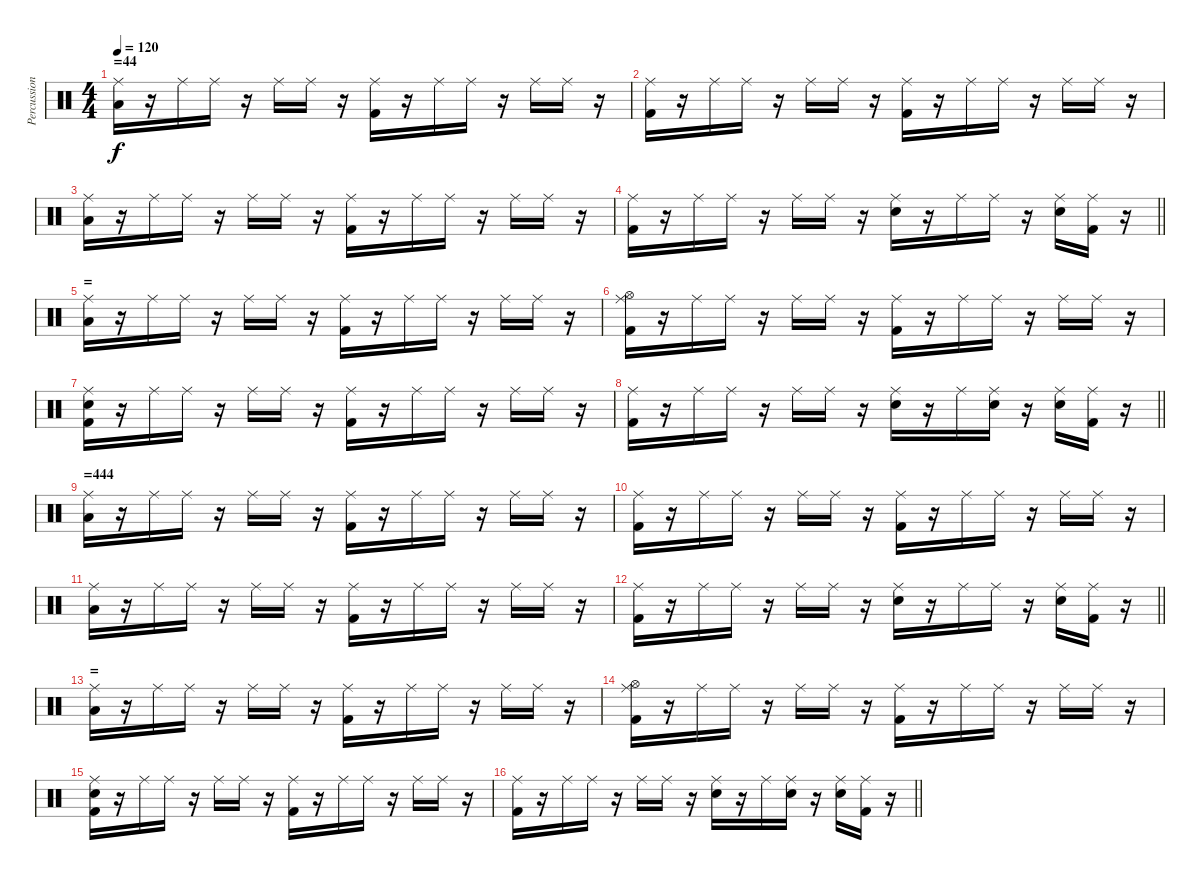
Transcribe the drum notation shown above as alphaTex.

\track ("Percussion" "Percussion") {instrument percussion}
\staff {score}
\articulation defaults
\ts (4 4)
\section ("" "=44")
\tempo 120
\clef neutral
\ks c
("Low Floor Tom (hit)" "Ride (middle)").16{dy f} r.16 "Ride (middle)".16 "Ride (middle)".16 r.16 "Ride (middle)".16 "Ride (middle)".16 r.16 ("Kick (hit) 2" "Ride (middle)").16 r.16 "Ride (middle)".16 "Ride (middle)".16 r.16 "Ride (middle)".16 "Ride (middle)".16 r.16 |
("Kick (hit) 2" "Ride (middle)").16 r.16 "Ride (middle)".16 "Ride (middle)".16 r.16 "Ride (middle)".16 "Ride (middle)".16 r.16 ("Kick (hit) 2" "Ride (middle)").16 r.16 "Ride (middle)".16 "Ride (middle)".16 r.16 "Ride (middle)".16 "Ride (middle)".16 r.16 |
("Low Floor Tom (hit)" "Ride (middle)").16 r.16 "Ride (middle)".16 "Ride (middle)".16 r.16 "Ride (middle)".16 "Ride (middle)".16 r.16 ("Kick (hit) 2" "Ride (middle)").16 r.16 "Ride (middle)".16 "Ride (middle)".16 r.16 "Ride (middle)".16 "Ride (middle)".16 r.16 |
\barLineRight lightlight
("Kick (hit) 2" "Ride (middle)").16 r.16 "Ride (middle)".16 "Ride (middle)".16 r.16 "Ride (middle)".16 "Ride (middle)".16 r.16 ("Ride (middle)" "Electric Snare (hit)").16 r.16 "Ride (middle)".16 "Ride (middle)".16 r.16 ("Ride (middle)" "Electric Snare (hit)").16 ("Kick (hit) 2" "Ride (middle)").16 r.16 |
\section ("" "=")
("Low Floor Tom (hit)" "Ride (middle)").16 r.16 "Ride (middle)".16 "Ride (middle)".16 r.16 "Ride (middle)".16 "Ride (middle)".16 r.16 ("Kick (hit) 2" "Ride (middle)").16 r.16 "Ride (middle)".16 "Ride (middle)".16 r.16 "Ride (middle)".16 "Ride (middle)".16 r.16 |
("Kick (hit) 2" "Ride (middle)" "Hi-Hat (open)").16 r.16 "Ride (middle)".16 "Ride (middle)".16 r.16 "Ride (middle)".16 "Ride (middle)".16 r.16 ("Kick (hit) 2" "Ride (middle)").16 r.16 "Ride (middle)".16 "Ride (middle)".16 r.16 "Ride (middle)".16 "Ride (middle)".16 r.16 |
("Kick (hit) 2" "Ride (middle)" "Electric Snare (hit)").16 r.16 "Ride (middle)".16 "Ride (middle)".16 r.16 "Ride (middle)".16 "Ride (middle)".16 r.16 ("Kick (hit) 2" "Ride (middle)").16 r.16 "Ride (middle)".16 "Ride (middle)".16 r.16 "Ride (middle)".16 "Ride (middle)".16 r.16 |
\barLineRight lightlight
("Kick (hit) 2" "Ride (middle)").16 r.16 "Ride (middle)".16 "Ride (middle)".16 r.16 "Ride (middle)".16 "Ride (middle)".16 r.16 ("Ride (middle)" "Electric Snare (hit)").16 r.16 "Ride (middle)".16 ("Ride (middle)" "Electric Snare (hit)").16 r.16 ("Ride (middle)" "Electric Snare (hit)").16 ("Kick (hit) 2" "Ride (middle)").16 r.16 |
\section ("" "=444")
("Low Floor Tom (hit)" "Ride (middle)").16 r.16 "Ride (middle)".16 "Ride (middle)".16 r.16 "Ride (middle)".16 "Ride (middle)".16 r.16 ("Kick (hit) 2" "Ride (middle)").16 r.16 "Ride (middle)".16 "Ride (middle)".16 r.16 "Ride (middle)".16 "Ride (middle)".16 r.16 |
("Kick (hit) 2" "Ride (middle)").16 r.16 "Ride (middle)".16 "Ride (middle)".16 r.16 "Ride (middle)".16 "Ride (middle)".16 r.16 ("Kick (hit) 2" "Ride (middle)").16 r.16 "Ride (middle)".16 "Ride (middle)".16 r.16 "Ride (middle)".16 "Ride (middle)".16 r.16 |
("Low Floor Tom (hit)" "Ride (middle)").16 r.16 "Ride (middle)".16 "Ride (middle)".16 r.16 "Ride (middle)".16 "Ride (middle)".16 r.16 ("Kick (hit) 2" "Ride (middle)").16 r.16 "Ride (middle)".16 "Ride (middle)".16 r.16 "Ride (middle)".16 "Ride (middle)".16 r.16 |
\barLineRight lightlight
("Kick (hit) 2" "Ride (middle)").16 r.16 "Ride (middle)".16 "Ride (middle)".16 r.16 "Ride (middle)".16 "Ride (middle)".16 r.16 ("Ride (middle)" "Electric Snare (hit)").16 r.16 "Ride (middle)".16 "Ride (middle)".16 r.16 ("Ride (middle)" "Electric Snare (hit)").16 ("Kick (hit) 2" "Ride (middle)").16 r.16 |
\section ("" "=")
("Low Floor Tom (hit)" "Ride (middle)").16 r.16 "Ride (middle)".16 "Ride (middle)".16 r.16 "Ride (middle)".16 "Ride (middle)".16 r.16 ("Kick (hit) 2" "Ride (middle)").16 r.16 "Ride (middle)".16 "Ride (middle)".16 r.16 "Ride (middle)".16 "Ride (middle)".16 r.16 |
("Kick (hit) 2" "Ride (middle)" "Hi-Hat (open)").16 r.16 "Ride (middle)".16 "Ride (middle)".16 r.16 "Ride (middle)".16 "Ride (middle)".16 r.16 ("Kick (hit) 2" "Ride (middle)").16 r.16 "Ride (middle)".16 "Ride (middle)".16 r.16 "Ride (middle)".16 "Ride (middle)".16 r.16 |
("Kick (hit) 2" "Ride (middle)" "Electric Snare (hit)").16 r.16 "Ride (middle)".16 "Ride (middle)".16 r.16 "Ride (middle)".16 "Ride (middle)".16 r.16 ("Kick (hit) 2" "Ride (middle)").16 r.16 "Ride (middle)".16 "Ride (middle)".16 r.16 "Ride (middle)".16 "Ride (middle)".16 r.16 |
\barLineRight lightlight
("Kick (hit) 2" "Ride (middle)").16 r.16 "Ride (middle)".16 "Ride (middle)".16 r.16 "Ride (middle)".16 "Ride (middle)".16 r.16 ("Ride (middle)" "Electric Snare (hit)").16 r.16 "Ride (middle)".16 ("Ride (middle)" "Electric Snare (hit)").16 r.16 ("Ride (middle)" "Electric Snare (hit)").16 ("Kick (hit) 2" "Ride (middle)").16 r.16
